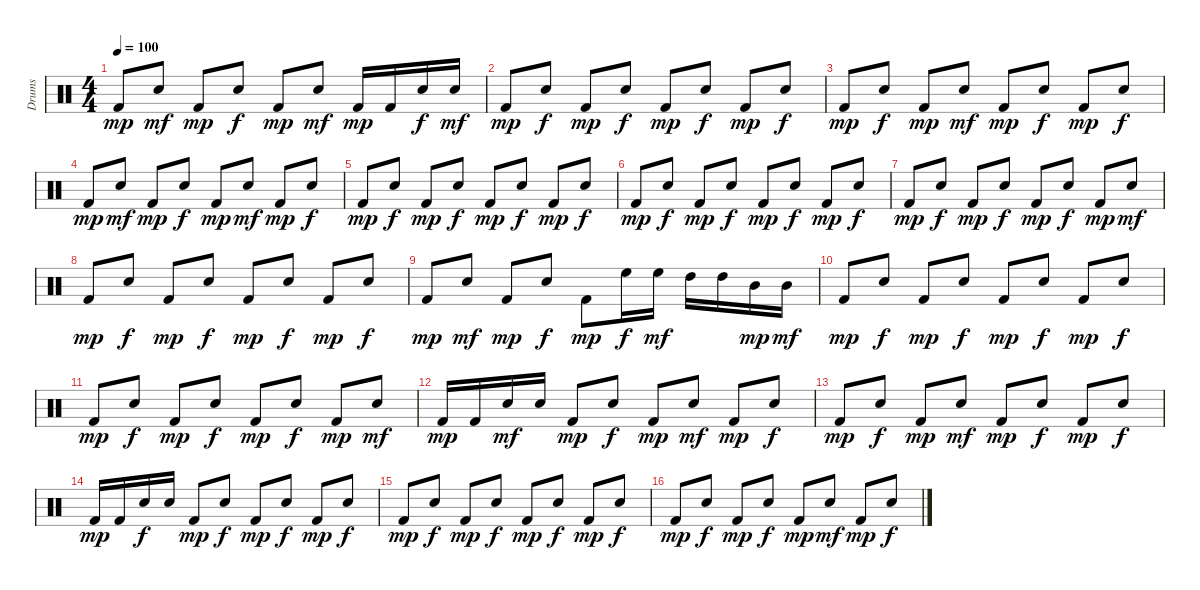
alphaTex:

\track ("Drums" "Drums") {instrument percussion}
\staff {score}
\articulation defaults
\ts (4 4)
\tempo 100
\clef neutral
\ks c "Kick (hit) 2".8{dy mp} "Snare (hit) 2".8{dy mf} "Kick (hit) 2".8{dy mp} "Snare (hit) 2".8{dy f} "Kick (hit) 2".8{dy mp} "Snare (hit) 2".8{dy mf} "Kick (hit) 2".16{dy mp} "Kick (hit) 2".16 "Snare (hit) 2".16{dy f} "Snare (hit) 2".16{dy mf}
|
"Kick (hit) 2".8{dy mp} "Snare (hit) 2".8{dy f} "Kick (hit) 2".8{dy mp} "Snare (hit) 2".8{dy f} "Kick (hit) 2".8{dy mp} "Snare (hit) 2".8{dy f} "Kick (hit) 2".8{dy mp} "Snare (hit) 2".8{dy f} |
"Kick (hit) 2".8{dy mp} "Snare (hit) 2".8{dy f} "Kick (hit) 2".8{dy mp} "Snare (hit) 2".8{dy mf} "Kick (hit) 2".8{dy mp} "Snare (hit) 2".8{dy f} "Kick (hit) 2".8{dy mp} "Snare (hit) 2".8{dy f} |
"Kick (hit) 2".8{dy mp} "Snare (hit) 2".8{dy mf} "Kick (hit) 2".8{dy mp} "Snare (hit) 2".8{dy f} "Kick (hit) 2".8{dy mp} "Snare (hit) 2".8{dy mf} "Kick (hit) 2".8{dy mp} "Snare (hit) 2".8{dy f} |
"Kick (hit) 2".8{dy mp} "Snare (hit) 2".8{dy f} "Kick (hit) 2".8{dy mp} "Snare (hit) 2".8{dy f} "Kick (hit) 2".8{dy mp} "Snare (hit) 2".8{dy f} "Kick (hit) 2".8{dy mp} "Snare (hit) 2".8{dy f} |
"Kick (hit) 2".8{dy mp} "Snare (hit) 2".8{dy f} "Kick (hit) 2".8{dy mp} "Snare (hit) 2".8{dy f} "Kick (hit) 2".8{dy mp} "Snare (hit) 2".8{dy f} "Kick (hit) 2".8{dy mp} "Snare (hit) 2".8{dy f} |
"Kick (hit) 2".8{dy mp} "Snare (hit) 2".8{dy f} "Kick (hit) 2".8{dy mp} "Snare (hit) 2".8{dy f} "Kick (hit) 2".8{dy mp} "Snare (hit) 2".8{dy f} "Kick (hit) 2".8{dy mp} "Snare (hit) 2".8{dy mf} |
"Kick (hit) 2".8{dy mp} "Snare (hit) 2".8{dy f} "Kick (hit) 2".8{dy mp} "Snare (hit) 2".8{dy f} "Kick (hit) 2".8{dy mp} "Snare (hit) 2".8{dy f} "Kick (hit) 2".8{dy mp} "Snare (hit) 2".8{dy f} |
"Kick (hit) 2".8{dy mp} "Snare (hit) 2".8{dy mf} "Kick (hit) 2".8{dy mp} "Snare (hit) 2".8{dy f} "Kick (hit) 2".8{dy mp} "High Floor Tom (hit)".16{dy f} "High Floor Tom (hit)".16{dy mf} "High Tom (hit)".16 "High Tom (hit)".16 "Mid Tom (hit)".16{dy mp} "Mid Tom (hit)".16{dy mf} |
"Kick (hit) 2".8{dy mp} "Snare (hit) 2".8{dy f} "Kick (hit) 2".8{dy mp} "Snare (hit) 2".8{dy f} "Kick (hit) 2".8{dy mp} "Snare (hit) 2".8{dy f} "Kick (hit) 2".8{dy mp} "Snare (hit) 2".8{dy f} |
"Kick (hit) 2".8{dy mp} "Snare (hit) 2".8{dy f} "Kick (hit) 2".8{dy mp} "Snare (hit) 2".8{dy f} "Kick (hit) 2".8{dy mp} "Snare (hit) 2".8{dy f} "Kick (hit) 2".8{dy mp} "Snare (hit) 2".8{dy mf} |
"Kick (hit) 2".16{dy mp} "Kick (hit) 2".16 "Snare (hit) 2".16{dy mf} "Snare (hit) 2".16 "Kick (hit) 2".8{dy mp} "Snare (hit) 2".8{dy f} "Kick (hit) 2".8{dy mp} "Snare (hit) 2".8{dy mf} "Kick (hit) 2".8{dy mp} "Snare (hit) 2".8{dy f} |
"Kick (hit) 2".8{dy mp} "Snare (hit) 2".8{dy f} "Kick (hit) 2".8{dy mp} "Snare (hit) 2".8{dy mf} "Kick (hit) 2".8{dy mp} "Snare (hit) 2".8{dy f} "Kick (hit) 2".8{dy mp} "Snare (hit) 2".8{dy f} |
"Kick (hit) 2".16{dy mp} "Kick (hit) 2".16 "Snare (hit) 2".16{dy f} "Snare (hit) 2".16 "Kick (hit) 2".8{dy mp} "Snare (hit) 2".8{dy f} "Kick (hit) 2".8{dy mp} "Snare (hit) 2".8{dy f} "Kick (hit) 2".8{dy mp} "Snare (hit) 2".8{dy f} |
"Kick (hit) 2".8{dy mp} "Snare (hit) 2".8{dy f} "Kick (hit) 2".8{dy mp} "Snare (hit) 2".8{dy f} "Kick (hit) 2".8{dy mp} "Snare (hit) 2".8{dy f} "Kick (hit) 2".8{dy mp} "Snare (hit) 2".8{dy f} |
"Kick (hit) 2".8{dy mp} "Snare (hit) 2".8{dy f} "Kick (hit) 2".8{dy mp} "Snare (hit) 2".8{dy f} "Kick (hit) 2".8{dy mp} "Snare (hit) 2".8{dy mf} "Kick (hit) 2".8{dy mp} "Snare (hit) 2".8{dy f}
